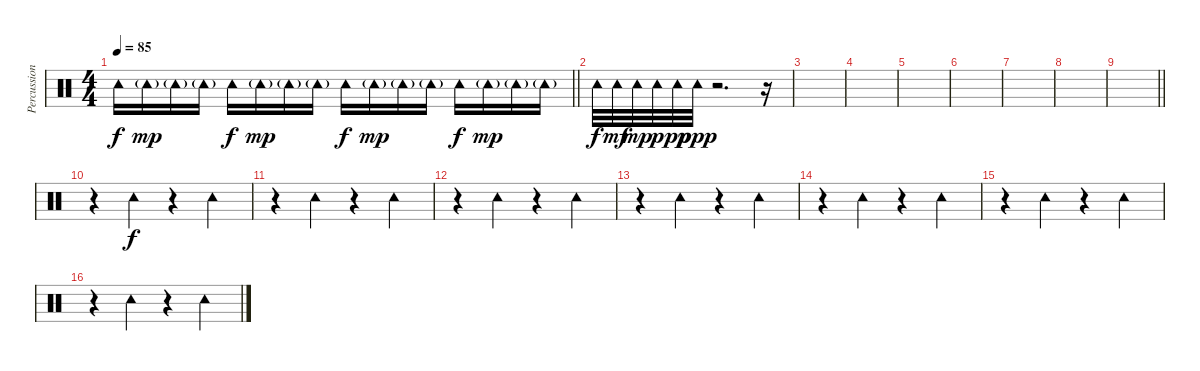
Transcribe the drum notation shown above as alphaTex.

\track ("Percussions" "Percussion") {instrument percussion}
\staff {score}
\articulation defaults
\ts (4 4)
\tempo 85
\clef neutral
\barLineRight lightlight
\ks c "Tambourine (hit)".16{dy f} "Tambourine (hit)"{g}.16{dy mp} "Tambourine (hit)"{g}.16 "Tambourine (hit)"{g}.16 "Tambourine (hit)".16{dy f} "Tambourine (hit)"{g}.16{dy mp} "Tambourine (hit)"{g}.16 "Tambourine (hit)"{g}.16 "Tambourine (hit)".16{dy f} "Tambourine (hit)"{g}.16{dy mp} "Tambourine (hit)"{g}.16 "Tambourine (hit)"{g}.16 "Tambourine (hit)".16{dy f} "Tambourine (hit)"{g}.16{dy mp} "Tambourine (hit)"{g}.16 "Tambourine (hit)"{g}.16
|
"Tambourine (hit)".32{dy f} "Tambourine (hit)".32{dy mf} "Tambourine (hit)".32{dy mp} "Tambourine (hit)".32{dy p} "Tambourine (hit)".32{dy pp} "Tambourine (hit)".32{dy ppp} r.2{d} r.16 |
|
|
|
|
|
|
\barLineRight lightlight
|
r.4 "Tambourine (hit)".4{dy f} r.4 "Tambourine (hit)".4 |
r.4 "Tambourine (hit)".4 r.4 "Tambourine (hit)".4 |
r.4 "Tambourine (hit)".4 r.4 "Tambourine (hit)".4 |
r.4 "Tambourine (hit)".4 r.4 "Tambourine (hit)".4 |
r.4 "Tambourine (hit)".4 r.4 "Tambourine (hit)".4 |
r.4 "Tambourine (hit)".4 r.4 "Tambourine (hit)".4 |
r.4 "Tambourine (hit)".4 r.4 "Tambourine (hit)".4
